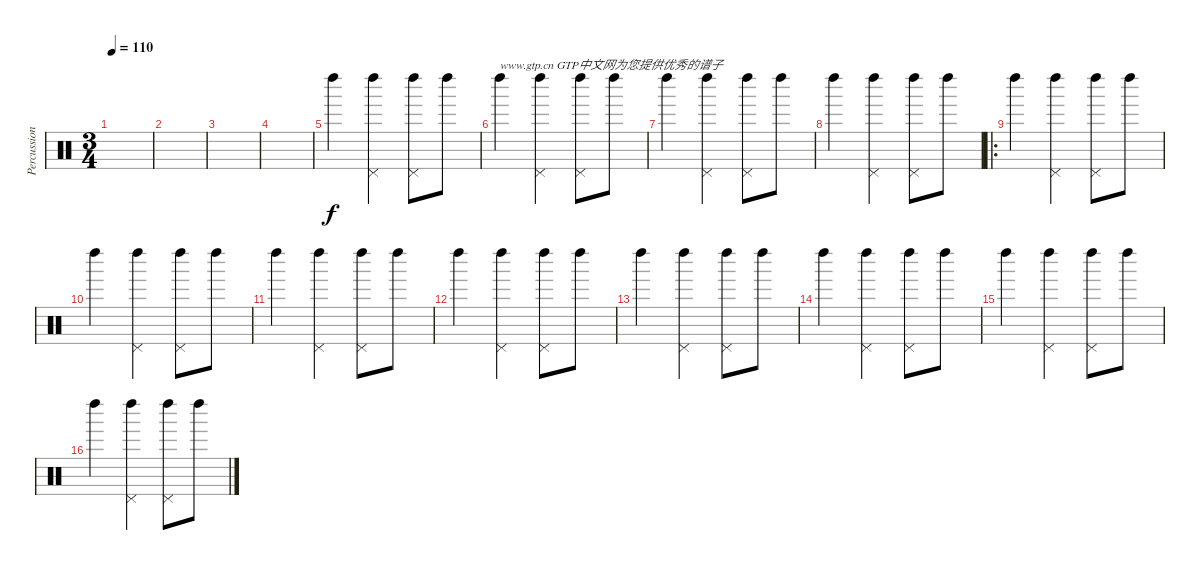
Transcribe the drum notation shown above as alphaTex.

\track ("Percussions" "Percussion") {instrument percussion}
\staff {score}
\articulation defaults
\ts (3 4)
\tempo 110
\clef neutral
\ks c
|
|
|
|
"Left Maraca (hit)".4 ("Left Maraca (hit)" "Pedal Hi-Hat (hit)").4 ("Left Maraca (hit)" "Pedal Hi-Hat (hit)").8 "Left Maraca (hit)".8 |
"Left Maraca (hit)".4{txt "www.gtp.cn GTP中文网为您提供优秀的谱子"} ("Left Maraca (hit)" "Pedal Hi-Hat (hit)").4 ("Left Maraca (hit)" "Pedal Hi-Hat (hit)").8 "Left Maraca (hit)".8 |
"Left Maraca (hit)".4 ("Left Maraca (hit)" "Pedal Hi-Hat (hit)").4 ("Left Maraca (hit)" "Pedal Hi-Hat (hit)").8 "Left Maraca (hit)".8 |
"Left Maraca (hit)".4 ("Left Maraca (hit)" "Pedal Hi-Hat (hit)").4 ("Left Maraca (hit)" "Pedal Hi-Hat (hit)").8 "Left Maraca (hit)".8 |
\ro "Left Maraca (hit)".4
("Left Maraca (hit)" "Pedal Hi-Hat (hit)").4 ("Left Maraca (hit)" "Pedal Hi-Hat (hit)").8 "Left Maraca (hit)".8 |
"Left Maraca (hit)".4 ("Left Maraca (hit)" "Pedal Hi-Hat (hit)").4 ("Left Maraca (hit)" "Pedal Hi-Hat (hit)").8 "Left Maraca (hit)".8 |
"Left Maraca (hit)".4 ("Left Maraca (hit)" "Pedal Hi-Hat (hit)").4 ("Left Maraca (hit)" "Pedal Hi-Hat (hit)").8 "Left Maraca (hit)".8 |
"Left Maraca (hit)".4 ("Left Maraca (hit)" "Pedal Hi-Hat (hit)").4 ("Left Maraca (hit)" "Pedal Hi-Hat (hit)").8 "Left Maraca (hit)".8 |
"Left Maraca (hit)".4 ("Left Maraca (hit)" "Pedal Hi-Hat (hit)").4 ("Left Maraca (hit)" "Pedal Hi-Hat (hit)").8 "Left Maraca (hit)".8 |
"Left Maraca (hit)".4 ("Left Maraca (hit)" "Pedal Hi-Hat (hit)").4 ("Left Maraca (hit)" "Pedal Hi-Hat (hit)").8 "Left Maraca (hit)".8 |
"Left Maraca (hit)".4 ("Left Maraca (hit)" "Pedal Hi-Hat (hit)").4 ("Left Maraca (hit)" "Pedal Hi-Hat (hit)").8 "Left Maraca (hit)".8 |
"Left Maraca (hit)".4 ("Left Maraca (hit)" "Pedal Hi-Hat (hit)").4 ("Left Maraca (hit)" "Pedal Hi-Hat (hit)").8 "Left Maraca (hit)".8
